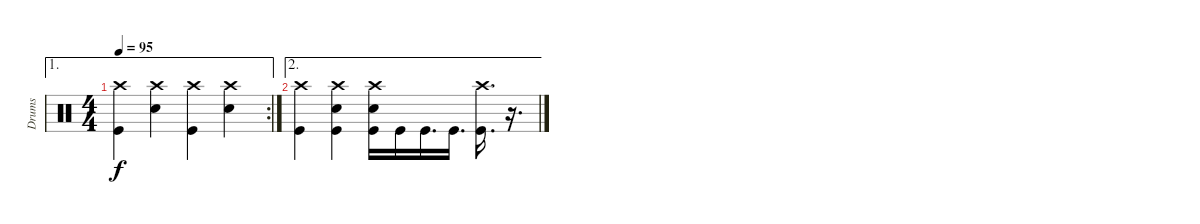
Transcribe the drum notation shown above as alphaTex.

\track ("Drums" "Drums") {instrument percussion}
\staff {score}
\articulation defaults
\ae 1
\rc 2
\ts (4 4)
\tempo 95
\clef neutral
\ks c
("Crash high (hit)" "Kick (hit)").4{dy f} ("Crash high (hit)" "Snare (hit) 2").4 ("Crash high (hit)" "Kick (hit)").4 ("Crash high (hit)" "Snare (hit) 2").4 |
\ae 2
("Crash high (hit)" "Kick (hit)").4 ("Crash high (hit)" "Snare (hit) 2" "Kick (hit)").4 ("Crash high (hit)" "Snare (hit) 2" "Kick (hit)").16 "Kick (hit)".16 "Kick (hit)".16{d} "Kick (hit)".16{d} ("Crash high (hit)" "Kick (hit)").16{d} r.16{d}
